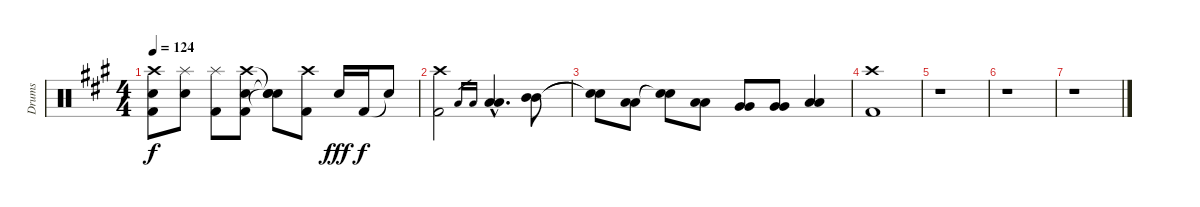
\track ("Drums" "Drums") {instrument percussion}
\staff {score}
\articulation defaults
\ts (4 4)
\tempo 124
\clef neutral
\ks a
("Crash high (hit)" "Electric Snare (hit)" "Kick (hit) 2").8{dy f} ("Splash (hit)" "Electric Snare (hit)").8 ("Splash (hit)" "Kick (hit) 2").8 ("Crash high (hit)" "Electric Snare (hit)" "Kick (hit) 2").8 ("Snare (hit)"{t} "Snare (hit)"{t} "Snare (hit)"{t}).8 ("Crash high (hit)" "Kick (hit) 2").8 "Electric Snare (hit)".16{dy fff} "Kick (hit) 2".16{dy f} "Snare (hit)"{t}.8 |
("Crash high (hit)" "Kick (hit) 2").2 "Low Tom (hit)".16{gr} "Low Tom (hit)".16{gr} ("Low Tom (hit)"{hac} "Low Tom (hit)"{hac}).4{d} ("Mid Tom (hit)" "Mid Tom (hit)").8 |
("Snare (hit)"{t} "Snare (hit)"{t}).8 ("Low Tom (hit)" "Low Tom (hit)").8 ("Snare (hit)"{t} "Snare (hit)"{t}).8 ("Low Tom (hit)" "Low Tom (hit)").8 ("Very Low Tom (hit)" "Very Low Tom (hit)").8 ("Very Low Tom (hit)" "Very Low Tom (hit)").8 ("Low Floor Tom (hit)" "Low Floor Tom (hit)").4 |
("Crash high (hit)" "Kick (hit) 2").1 |
r.1 |
r.1 |
r.1
